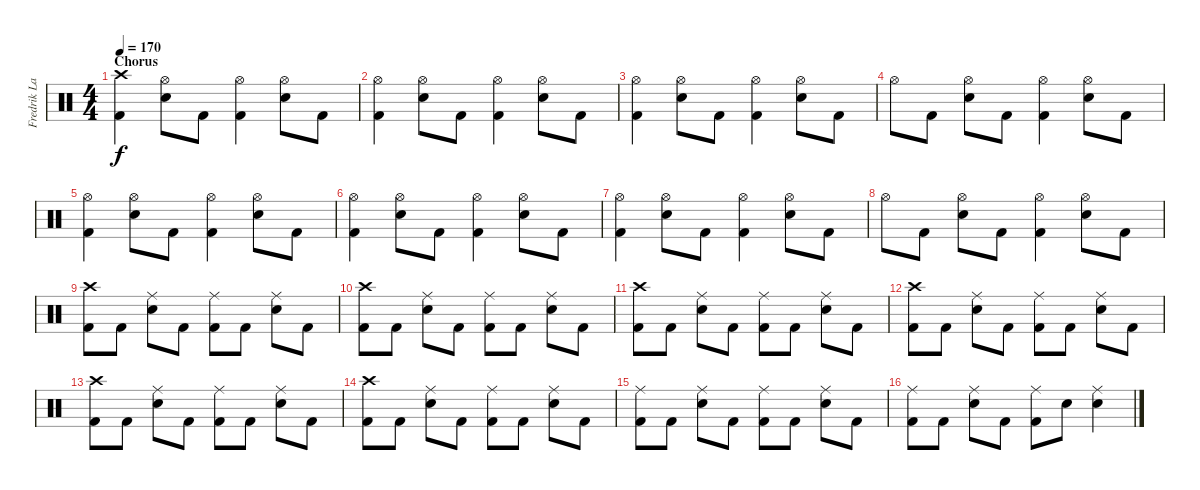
\track ("Fredrik Larzon" "Fredrik La") {instrument percussion}
\staff {score}
\articulation defaults
\ts (4 4)
\section ("" "Chorus")
\tempo 170
\clef neutral
\ks c
("Crash high (hit)" "Kick (hit) 2").4{dy f} ("Hi-Hat (open)" "Electric Snare (hit)").8 "Kick (hit) 2".8 ("Hi-Hat (open)" "Kick (hit) 2").4 ("Hi-Hat (open)" "Electric Snare (hit)").8 "Kick (hit) 2".8 |
("Hi-Hat (open)" "Kick (hit) 2").4 ("Hi-Hat (open)" "Electric Snare (hit)").8 "Kick (hit) 2".8 ("Hi-Hat (open)" "Kick (hit) 2").4 ("Hi-Hat (open)" "Electric Snare (hit)").8 "Kick (hit) 2".8 |
("Hi-Hat (open)" "Kick (hit) 2").4 ("Hi-Hat (open)" "Electric Snare (hit)").8 "Kick (hit) 2".8 ("Hi-Hat (open)" "Kick (hit) 2").4 ("Hi-Hat (open)" "Electric Snare (hit)").8 "Kick (hit) 2".8 |
"Hi-Hat (open)".8 "Kick (hit) 2".8 ("Hi-Hat (open)" "Electric Snare (hit)").8 "Kick (hit) 2".8 ("Hi-Hat (open)" "Kick (hit) 2").4 ("Hi-Hat (open)" "Electric Snare (hit)").8 "Kick (hit) 2".8 |
("Hi-Hat (open)" "Kick (hit) 2").4 ("Hi-Hat (open)" "Electric Snare (hit)").8 "Kick (hit) 2".8 ("Hi-Hat (open)" "Kick (hit) 2").4 ("Hi-Hat (open)" "Electric Snare (hit)").8 "Kick (hit) 2".8 |
("Hi-Hat (open)" "Kick (hit) 2").4 ("Hi-Hat (open)" "Electric Snare (hit)").8 "Kick (hit) 2".8 ("Hi-Hat (open)" "Kick (hit) 2").4 ("Hi-Hat (open)" "Electric Snare (hit)").8 "Kick (hit) 2".8 |
("Hi-Hat (open)" "Kick (hit) 2").4 ("Hi-Hat (open)" "Electric Snare (hit)").8 "Kick (hit) 2".8 ("Hi-Hat (open)" "Kick (hit) 2").4 ("Hi-Hat (open)" "Electric Snare (hit)").8 "Kick (hit) 2".8 |
"Hi-Hat (open)".8 "Kick (hit) 2".8 ("Hi-Hat (open)" "Electric Snare (hit)").8 "Kick (hit) 2".8 ("Hi-Hat (open)" "Kick (hit) 2").4 ("Hi-Hat (open)" "Electric Snare (hit)").8 "Kick (hit) 2".8 |
("Crash high (hit)" "Kick (hit) 2").8 "Kick (hit) 2".8 ("Ride (middle)" "Electric Snare (hit)").8 "Kick (hit) 2".8 ("Ride (middle)" "Kick (hit) 2").8 "Kick (hit) 2".8 ("Ride (middle)" "Electric Snare (hit)").8 "Kick (hit) 2".8 |
("Crash high (hit)" "Kick (hit) 2").8 "Kick (hit) 2".8 ("Ride (middle)" "Electric Snare (hit)").8 "Kick (hit) 2".8 ("Ride (middle)" "Kick (hit) 2").8 "Kick (hit) 2".8 ("Ride (middle)" "Electric Snare (hit)").8 "Kick (hit) 2".8 |
("Crash high (hit)" "Kick (hit) 2").8 "Kick (hit) 2".8 ("Ride (middle)" "Electric Snare (hit)").8 "Kick (hit) 2".8 ("Ride (middle)" "Kick (hit) 2").8 "Kick (hit) 2".8 ("Ride (middle)" "Electric Snare (hit)").8 "Kick (hit) 2".8 |
("Crash high (hit)" "Kick (hit) 2").8 "Kick (hit) 2".8 ("Ride (middle)" "Electric Snare (hit)").8 "Kick (hit) 2".8 ("Ride (middle)" "Kick (hit) 2").8 "Kick (hit) 2".8 ("Ride (middle)" "Electric Snare (hit)").8 "Kick (hit) 2".8 |
("Crash high (hit)" "Kick (hit) 2").8 "Kick (hit) 2".8 ("Ride (middle)" "Electric Snare (hit)").8 "Kick (hit) 2".8 ("Ride (middle)" "Kick (hit) 2").8 "Kick (hit) 2".8 ("Ride (middle)" "Electric Snare (hit)").8 "Kick (hit) 2".8 |
("Crash high (hit)" "Kick (hit) 2").8 "Kick (hit) 2".8 ("Ride (middle)" "Electric Snare (hit)").8 "Kick (hit) 2".8 ("Ride (middle)" "Kick (hit) 2").8 "Kick (hit) 2".8 ("Ride (middle)" "Electric Snare (hit)").8 "Kick (hit) 2".8 |
("Ride (middle)" "Kick (hit) 2").8 "Kick (hit) 2".8 ("Ride (middle)" "Electric Snare (hit)").8 "Kick (hit) 2".8 ("Ride (middle)" "Kick (hit) 2").8 "Kick (hit) 2".8 ("Ride (middle)" "Electric Snare (hit)").8 "Kick (hit) 2".8 |
("Ride (middle)" "Kick (hit) 2").8 "Kick (hit) 2".8 ("Ride (middle)" "Electric Snare (hit)").8 "Kick (hit) 2".8 ("Ride (middle)" "Kick (hit) 2").8 "Electric Snare (hit)".8 ("Ride (middle)" "Electric Snare (hit)").4
